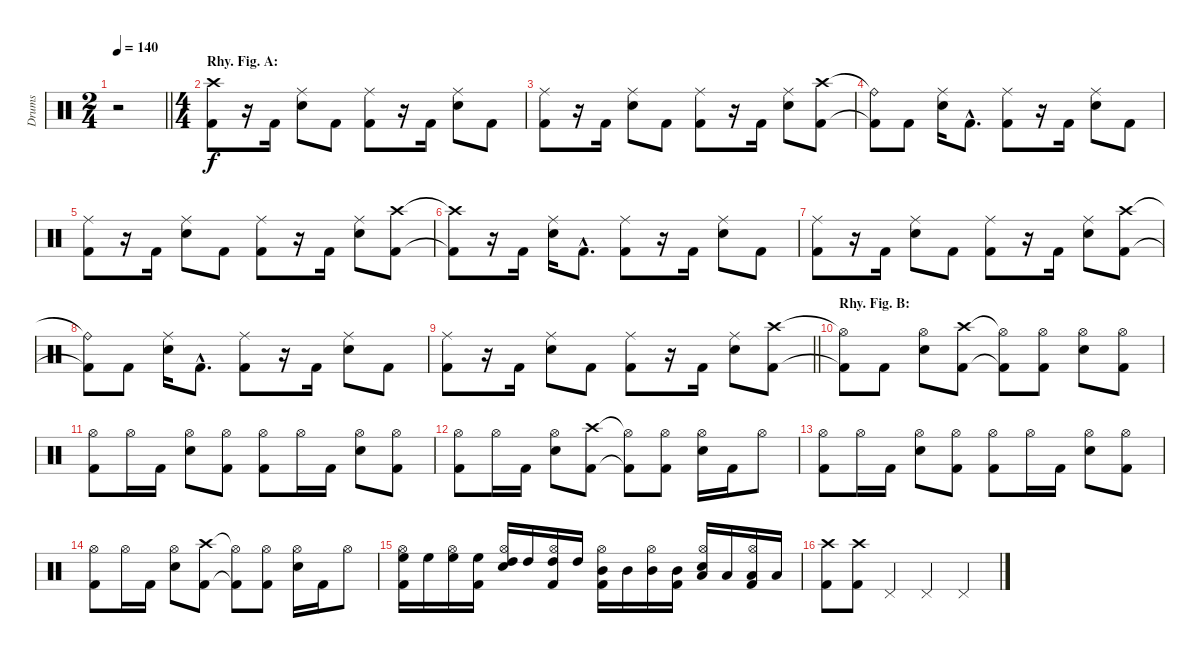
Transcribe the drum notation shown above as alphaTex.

\track ("Drums" "Drums") {instrument percussion}
\staff {score}
\articulation defaults
\ts (2 4)
\tempo 140
\clef neutral
\barLineRight lightlight
\ks c
r.2{dy f} |
\ts (4 4)
\section ("" "Rhy. Fig. A:")
("Crash high (hit)" "Kick (hit) 2").8 r.16 "Kick (hit) 2".16 ("Ride (middle)" "Snare (hit) 2").8 "Kick (hit) 2".8 ("Ride (middle)" "Kick (hit) 2").8 r.16 "Kick (hit) 2".16 ("Ride (middle)" "Snare (hit) 2").8 "Kick (hit) 2".8 |
("Ride (middle)" "Kick (hit) 2").8 r.16 "Kick (hit) 2".16 ("Ride (middle)" "Snare (hit) 2").8 "Kick (hit) 2".8 ("Ride (middle)" "Kick (hit) 2").8 r.16 "Kick (hit) 2".16 ("Ride (middle)" "Snare (hit) 2").8 ("Crash high (hit)" "Kick (hit) 2").8 |
("Ride (bell)"{t} "Kick (hit) 2"{t}).8 "Kick (hit) 2".8 ("Ride (middle)" "Snare (hit) 2").16 "Kick (hit) 2"{hac}.8{d} ("Ride (middle)" "Kick (hit) 2").8 r.16 "Kick (hit) 2".16 ("Ride (middle)" "Snare (hit) 2").8 "Kick (hit) 2".8 |
("Ride (middle)" "Kick (hit) 2").8 r.16 "Kick (hit) 2".16 ("Ride (middle)" "Snare (hit) 2").8 "Kick (hit) 2".8 ("Ride (middle)" "Kick (hit) 2").8 r.16 "Kick (hit) 2".16 ("Ride (middle)" "Snare (hit) 2").8 ("Crash high (hit)" "Kick (hit) 2").8 |
("Crash high (hit)"{t} "Kick (hit) 2"{t}).8 r.16 "Kick (hit) 2".16 ("Ride (middle)" "Snare (hit) 2").16 "Kick (hit) 2"{hac}.8{d} ("Ride (middle)" "Kick (hit) 2").8 r.16 "Kick (hit) 2".16 ("Ride (middle)" "Snare (hit) 2").8 "Kick (hit) 2".8 |
("Ride (middle)" "Kick (hit) 2").8 r.16 "Kick (hit) 2".16 ("Ride (middle)" "Snare (hit) 2").8 "Kick (hit) 2".8 ("Ride (middle)" "Kick (hit) 2").8 r.16 "Kick (hit) 2".16 ("Ride (middle)" "Snare (hit) 2").8 ("Crash high (hit)" "Kick (hit) 2").8 |
("Ride (bell)"{t} "Kick (hit) 2"{t}).8 "Kick (hit) 2".8 ("Ride (middle)" "Snare (hit) 2").16 "Kick (hit) 2"{hac}.8{d} ("Ride (middle)" "Kick (hit) 2").8 r.16 "Kick (hit) 2".16 ("Ride (middle)" "Snare (hit) 2").8 "Kick (hit) 2".8 |
\barLineRight lightlight
("Ride (middle)" "Kick (hit) 2").8 r.16 "Kick (hit) 2".16 ("Ride (middle)" "Snare (hit) 2").8 "Kick (hit) 2".8 ("Ride (middle)" "Kick (hit) 2").8 r.16 "Kick (hit) 2".16 ("Ride (middle)" "Snare (hit) 2").8 ("Crash high (hit)" "Kick (hit) 2").8 |
\section ("" "Rhy. Fig. B:")
("Hi-Hat (open)"{t} "Kick (hit) 2"{t}).8 "Kick (hit) 2".8 ("Hi-Hat (open)" "Snare (hit) 2").8 ("Crash high (hit)" "Kick (hit) 2").8 ("Hi-Hat (open)"{t} "Kick (hit) 2"{t}).8 ("Hi-Hat (open)" "Kick (hit) 2").8 ("Hi-Hat (open)" "Snare (hit) 2").8 ("Hi-Hat (open)" "Kick (hit) 2").8 |
("Hi-Hat (open)" "Kick (hit) 2").8 "Hi-Hat (open)".16 "Kick (hit) 2".16 ("Hi-Hat (open)" "Snare (hit) 2").8 ("Hi-Hat (open)" "Kick (hit) 2").8 ("Hi-Hat (open)" "Kick (hit) 2").8 "Hi-Hat (open)".16 "Kick (hit) 2".16 ("Hi-Hat (open)" "Snare (hit) 2").8 ("Hi-Hat (open)" "Kick (hit) 2").8 |
("Hi-Hat (open)" "Kick (hit) 2").8 "Hi-Hat (open)".16 "Kick (hit) 2".16 ("Hi-Hat (open)" "Snare (hit) 2").8 ("Crash high (hit)" "Kick (hit) 2").8 ("Hi-Hat (open)"{t} "Kick (hit) 2"{t}).8 ("Hi-Hat (open)" "Kick (hit) 2").8 ("Hi-Hat (open)" "Snare (hit) 2").16 "Kick (hit) 2".16 "Hi-Hat (open)".8 |
("Hi-Hat (open)" "Kick (hit) 2").8 "Hi-Hat (open)".16 "Kick (hit) 2".16 ("Hi-Hat (open)" "Snare (hit) 2").8 ("Hi-Hat (open)" "Kick (hit) 2").8 ("Hi-Hat (open)" "Kick (hit) 2").8 "Hi-Hat (open)".16 "Kick (hit) 2".16 ("Hi-Hat (open)" "Snare (hit) 2").8 ("Hi-Hat (open)" "Kick (hit) 2").8 |
("Hi-Hat (open)" "Kick (hit) 2").8 "Hi-Hat (open)".16 "Kick (hit) 2".16 ("Hi-Hat (open)" "Snare (hit) 2").8 ("Crash high (hit)" "Kick (hit) 2").8 ("Hi-Hat (open)"{t} "Kick (hit) 2"{t}).8 ("Hi-Hat (open)" "Kick (hit) 2").8 ("Hi-Hat (open)" "Snare (hit) 2").16 "Kick (hit) 2".16 "Hi-Hat (open)".8 |
("Hi-Hat (open)" "High Floor Tom (hit)" "Kick (hit) 2").16 "High Floor Tom (hit)".16 ("Hi-Hat (open)" "High Floor Tom (hit)").16 ("High Floor Tom (hit)" "Kick (hit) 2").16 ("Hi-Hat (open)" "High Tom (hit)" "Snare (hit) 2").16 "High Tom (hit)".16 ("Hi-Hat (open)" "High Tom (hit)" "Kick (hit) 2").16 "High Tom (hit)".16 ("Hi-Hat (open)" "Mid Tom (hit)" "Kick (hit) 2").16 "Mid Tom (hit)".16 ("Hi-Hat (open)" "Mid Tom (hit)").16 ("Mid Tom (hit)" "Kick (hit) 2").16 ("Hi-Hat (open)" "Low Tom (hit)" "Snare (hit) 2").16 "Low Tom (hit)".16 ("Hi-Hat (open)" "Low Tom (hit)" "Kick (hit) 2").16 "Low Tom (hit)".16 |
("Crash high (hit)" "Kick (hit) 2").8 ("Crash high (hit)" "Kick (hit) 2").8 "Pedal Hi-Hat (hit)".4 "Pedal Hi-Hat (hit)".4 "Pedal Hi-Hat (hit)".4
